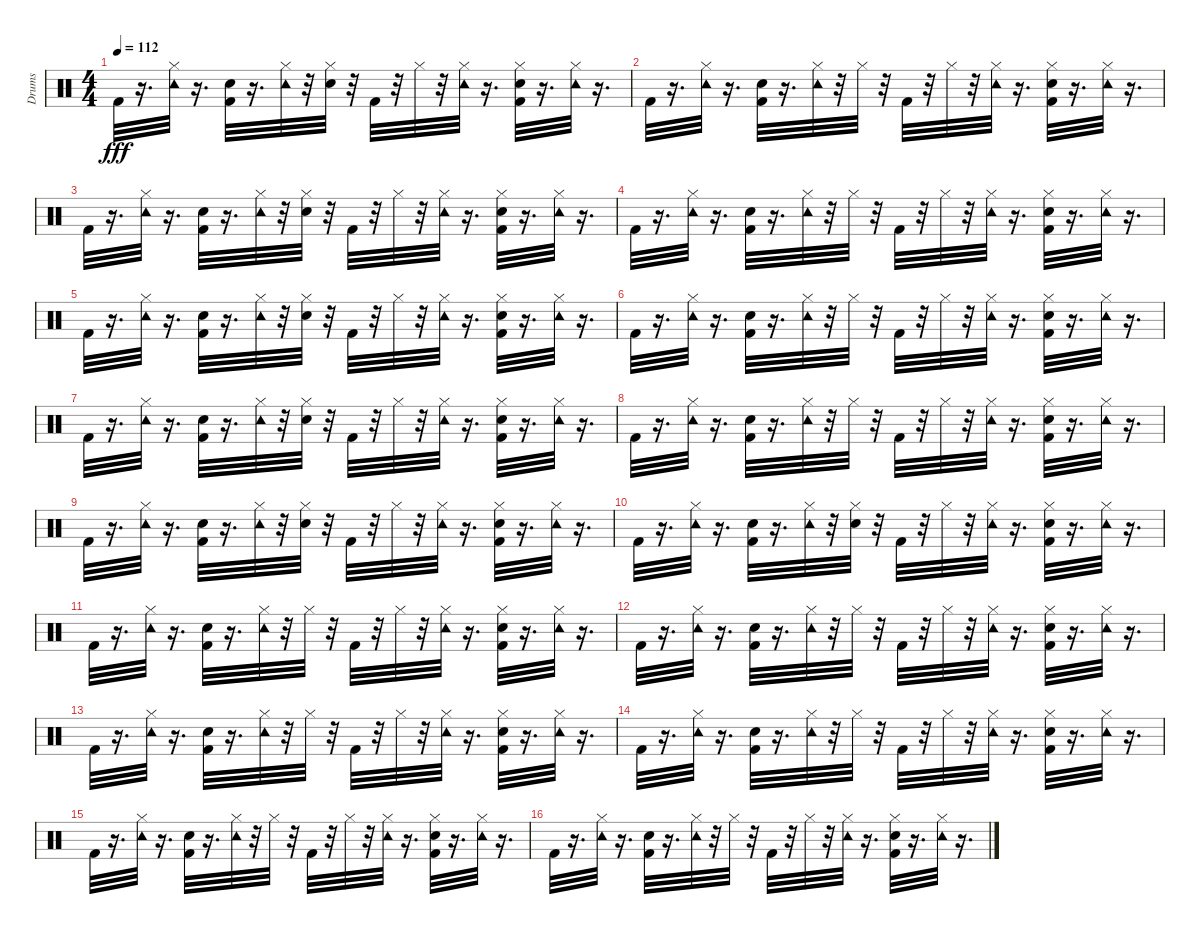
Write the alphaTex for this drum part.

\track ("Drums" "Drums") {instrument percussion}
\staff {score}
\articulation defaults
\ts (4 4)
\tempo 112
\clef neutral
\ks c "Kick (hit) 2".32{dy fff}
r.16{d} ("Tambourine (hit)" "Hi-Hat (closed)").32 r.16{d} ("Snare (hit) 2" "Kick (hit) 2").32 r.16{d} ("Tambourine (hit)" "Hi-Hat (closed)").32 r.32 ("Snare (hit) 2" "Hi-Hat (closed)").32 r.32 "Kick (hit) 2".32 r.32 "Hi-Hat (closed)".32 r.32 ("Tambourine (hit)" "Hi-Hat (closed)").32 r.16{d} ("Snare (hit) 2" "Hi-Hat (closed)" "Kick (hit) 2").32 r.16{d} ("Tambourine (hit)" "Hi-Hat (closed)").32 r.16{d} |
"Kick (hit) 2".32{volume 16} r.16{d} ("Tambourine (hit)" "Hi-Hat (closed)").32 r.16{d} ("Snare (hit) 2" "Kick (hit) 2").32 r.16{d} ("Tambourine (hit)" "Hi-Hat (closed)").32 r.32 "Hi-Hat (closed)".32 r.32 "Kick (hit) 2".32 r.32 "Hi-Hat (closed)".32 r.32 ("Tambourine (hit)" "Hi-Hat (closed)").32 r.16{d} ("Snare (hit) 2" "Hi-Hat (closed)" "Kick (hit) 2").32 r.16{d} ("Tambourine (hit)" "Hi-Hat (closed)").32 r.16{d} |
"Kick (hit) 2".32 r.16{d} ("Tambourine (hit)" "Hi-Hat (closed)").32 r.16{d} ("Snare (hit) 2" "Kick (hit) 2").32 r.16{d} ("Tambourine (hit)" "Hi-Hat (closed)").32 r.32 ("Snare (hit) 2" "Hi-Hat (closed)").32 r.32 "Kick (hit) 2".32 r.32 "Hi-Hat (closed)".32 r.32 ("Tambourine (hit)" "Hi-Hat (closed)").32 r.16{d} ("Snare (hit) 2" "Hi-Hat (closed)" "Kick (hit) 2").32 r.16{d} ("Tambourine (hit)" "Hi-Hat (closed)").32 r.16{d} |
"Kick (hit) 2".32 r.16{d} ("Tambourine (hit)" "Hi-Hat (closed)").32 r.16{d} ("Snare (hit) 2" "Kick (hit) 2").32 r.16{d} ("Tambourine (hit)" "Hi-Hat (closed)").32 r.32 "Hi-Hat (closed)".32 r.32 "Kick (hit) 2".32 r.32 "Hi-Hat (closed)".32 r.32 ("Tambourine (hit)" "Hi-Hat (closed)").32 r.16{d} ("Snare (hit) 2" "Hi-Hat (closed)" "Kick (hit) 2").32 r.16{d} ("Tambourine (hit)" "Hi-Hat (closed)").32 r.16{d} |
"Kick (hit) 2".32 r.16{d} ("Tambourine (hit)" "Hi-Hat (closed)").32 r.16{d} ("Snare (hit) 2" "Kick (hit) 2").32 r.16{d} ("Tambourine (hit)" "Hi-Hat (closed)").32 r.32 ("Snare (hit) 2" "Hi-Hat (closed)").32 r.32 "Kick (hit) 2".32 r.32 "Hi-Hat (closed)".32 r.32 ("Tambourine (hit)" "Hi-Hat (closed)").32 r.16{d} ("Snare (hit) 2" "Hi-Hat (closed)" "Kick (hit) 2").32 r.16{d} ("Tambourine (hit)" "Hi-Hat (closed)").32 r.16{d} |
"Kick (hit) 2".32 r.16{d} ("Tambourine (hit)" "Hi-Hat (closed)").32 r.16{d} ("Snare (hit) 2" "Kick (hit) 2").32 r.16{d} ("Tambourine (hit)" "Hi-Hat (closed)").32 r.32 "Hi-Hat (closed)".32 r.32 "Kick (hit) 2".32 r.32 "Hi-Hat (closed)".32 r.32 ("Tambourine (hit)" "Hi-Hat (closed)").32 r.16{d} ("Snare (hit) 2" "Hi-Hat (closed)" "Kick (hit) 2").32 r.16{d} ("Tambourine (hit)" "Hi-Hat (closed)").32 r.16{d} |
"Kick (hit) 2".32 r.16{d} ("Tambourine (hit)" "Hi-Hat (closed)").32 r.16{d} ("Snare (hit) 2" "Kick (hit) 2").32 r.16{d} ("Tambourine (hit)" "Hi-Hat (closed)").32 r.32 ("Snare (hit) 2" "Hi-Hat (closed)").32 r.32 "Kick (hit) 2".32 r.32 "Hi-Hat (closed)".32 r.32 ("Tambourine (hit)" "Hi-Hat (closed)").32 r.16{d} ("Snare (hit) 2" "Hi-Hat (closed)" "Kick (hit) 2").32 r.16{d} ("Tambourine (hit)" "Hi-Hat (closed)").32 r.16{d} |
"Kick (hit) 2".32 r.16{d} ("Tambourine (hit)" "Hi-Hat (closed)").32 r.16{d} ("Snare (hit) 2" "Kick (hit) 2").32 r.16{d} ("Tambourine (hit)" "Hi-Hat (closed)").32 r.32 "Hi-Hat (closed)".32 r.32 "Kick (hit) 2".32 r.32 "Hi-Hat (closed)".32 r.32 ("Tambourine (hit)" "Hi-Hat (closed)").32 r.16{d} ("Snare (hit) 2" "Hi-Hat (closed)" "Kick (hit) 2").32 r.16{d} ("Tambourine (hit)" "Hi-Hat (closed)").32 r.16{d} |
"Kick (hit) 2".32 r.16{d} ("Tambourine (hit)" "Hi-Hat (closed)").32 r.16{d} ("Snare (hit) 2" "Kick (hit) 2").32 r.16{d} ("Tambourine (hit)" "Hi-Hat (closed)").32 r.32 ("Snare (hit) 2" "Hi-Hat (closed)").32 r.32 "Kick (hit) 2".32 r.32 "Hi-Hat (closed)".32 r.32 ("Tambourine (hit)" "Hi-Hat (closed)").32 r.16{d} ("Snare (hit) 2" "Hi-Hat (closed)" "Kick (hit) 2").32 r.16{d} ("Tambourine (hit)" "Hi-Hat (closed)").32 r.16{d} |
"Kick (hit) 2".32 r.16{d} ("Tambourine (hit)" "Hi-Hat (closed)").32 r.16{d} ("Snare (hit) 2" "Kick (hit) 2").32 r.16{d} ("Tambourine (hit)" "Hi-Hat (closed)").32 r.32 ("Snare (hit) 2" "Hi-Hat (closed)").32 r.32 "Kick (hit) 2".32 r.32 "Hi-Hat (closed)".32 r.32 ("Tambourine (hit)" "Hi-Hat (closed)").32 r.16{d} ("Snare (hit) 2" "Hi-Hat (closed)" "Kick (hit) 2").32 r.16{d} ("Tambourine (hit)" "Hi-Hat (closed)").32 r.16{d} |
"Kick (hit) 2".32{volume 16} r.16{d} ("Tambourine (hit)" "Hi-Hat (closed)").32 r.16{d} ("Snare (hit) 2" "Kick (hit) 2").32 r.16{d} ("Tambourine (hit)" "Hi-Hat (closed)").32 r.32 "Hi-Hat (closed)".32 r.32 "Kick (hit) 2".32 r.32 "Hi-Hat (closed)".32 r.32 ("Tambourine (hit)" "Hi-Hat (closed)").32 r.16{d} ("Snare (hit) 2" "Hi-Hat (closed)" "Kick (hit) 2").32 r.16{d} ("Tambourine (hit)" "Hi-Hat (closed)").32 r.16{d} |
"Kick (hit) 2".32 r.16{d} ("Tambourine (hit)" "Hi-Hat (closed)").32 r.16{d} ("Snare (hit) 2" "Kick (hit) 2").32 r.16{d} ("Tambourine (hit)" "Hi-Hat (closed)").32 r.32 "Hi-Hat (closed)".32 r.32 "Kick (hit) 2".32 r.32 "Hi-Hat (closed)".32 r.32 ("Tambourine (hit)" "Hi-Hat (closed)").32 r.16{d} ("Snare (hit) 2" "Hi-Hat (closed)" "Kick (hit) 2").32 r.16{d} ("Tambourine (hit)" "Hi-Hat (closed)").32 r.16{d} |
"Kick (hit) 2".32 r.16{d} ("Tambourine (hit)" "Hi-Hat (closed)").32 r.16{d} ("Snare (hit) 2" "Kick (hit) 2").32 r.16{d} ("Tambourine (hit)" "Hi-Hat (closed)").32 r.32 "Hi-Hat (closed)".32 r.32 "Kick (hit) 2".32 r.32 "Hi-Hat (closed)".32 r.32 ("Tambourine (hit)" "Hi-Hat (closed)").32 r.16{d} ("Snare (hit) 2" "Hi-Hat (closed)" "Kick (hit) 2").32 r.16{d} ("Tambourine (hit)" "Hi-Hat (closed)").32 r.16{d} |
"Kick (hit) 2".32 r.16{d} ("Tambourine (hit)" "Hi-Hat (closed)").32 r.16{d} ("Snare (hit) 2" "Kick (hit) 2").32 r.16{d} ("Tambourine (hit)" "Hi-Hat (closed)").32 r.32 "Hi-Hat (closed)".32 r.32 "Kick (hit) 2".32 r.32 "Hi-Hat (closed)".32 r.32 ("Tambourine (hit)" "Hi-Hat (closed)").32 r.16{d} ("Snare (hit) 2" "Hi-Hat (closed)" "Kick (hit) 2").32 r.16{d} ("Tambourine (hit)" "Hi-Hat (closed)").32 r.16{d} |
"Kick (hit) 2".32 r.16{d} ("Tambourine (hit)" "Hi-Hat (closed)").32 r.16{d} ("Snare (hit) 2" "Kick (hit) 2").32 r.16{d} ("Tambourine (hit)" "Hi-Hat (closed)").32 r.32 "Hi-Hat (closed)".32 r.32 "Kick (hit) 2".32 r.32 "Hi-Hat (closed)".32 r.32 ("Tambourine (hit)" "Hi-Hat (closed)").32 r.16{d} ("Snare (hit) 2" "Hi-Hat (closed)" "Kick (hit) 2").32 r.16{d} ("Tambourine (hit)" "Hi-Hat (closed)").32 r.16{d} |
"Kick (hit) 2".32 r.16{d} ("Tambourine (hit)" "Hi-Hat (closed)").32 r.16{d} ("Snare (hit) 2" "Kick (hit) 2").32 r.16{d} ("Tambourine (hit)" "Hi-Hat (closed)").32 r.32 "Hi-Hat (closed)".32 r.32 "Kick (hit) 2".32 r.32 "Hi-Hat (closed)".32 r.32 ("Tambourine (hit)" "Hi-Hat (closed)").32 r.16{d} ("Snare (hit) 2" "Hi-Hat (closed)" "Kick (hit) 2").32 r.16{d} ("Tambourine (hit)" "Hi-Hat (closed)").32 r.16{d}
